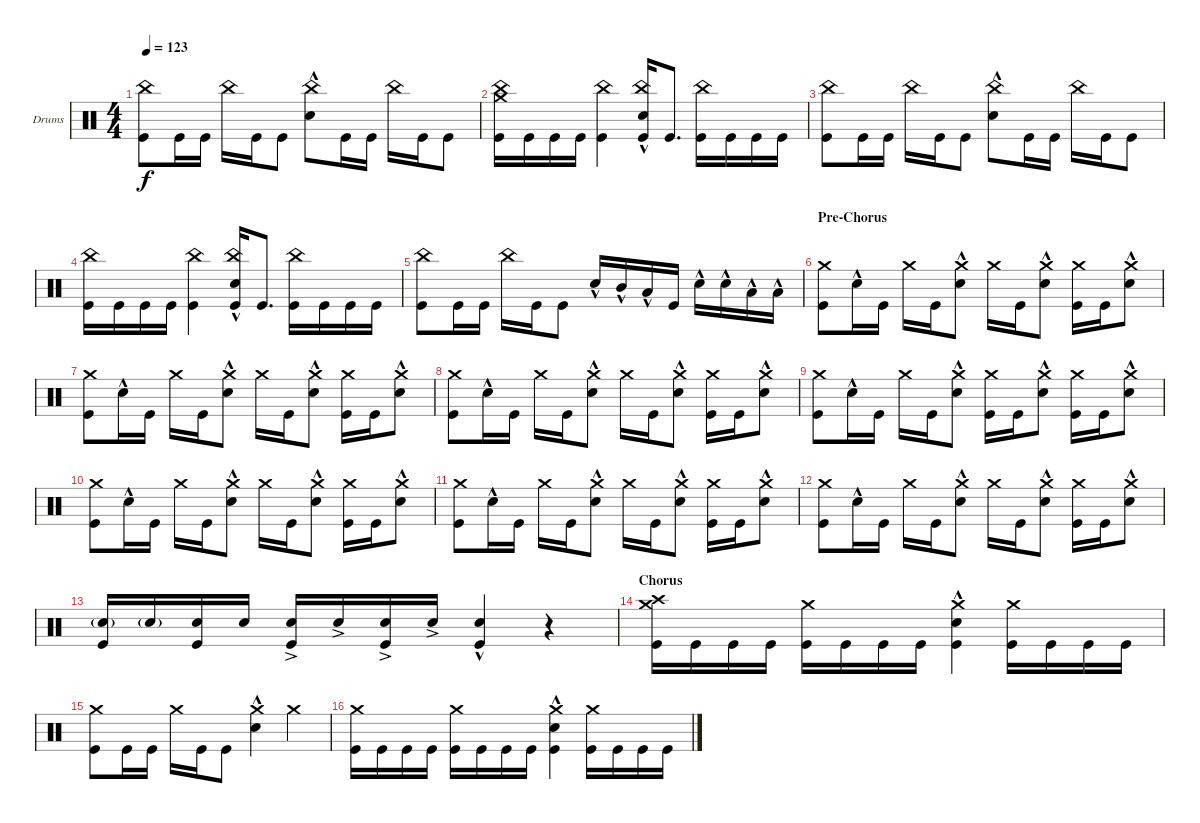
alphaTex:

\bracketExtendMode groupsimilarinstruments
\firstSystemTrackNameOrientation horizontal
\otherSystemsTrackNameOrientation horizontal
\track ("Drumkit" "Drums") {instrument percussion}
\staff {score}
\articulation defaults
\ts (4 4)
\tempo 123
\clef neutral
\ks aminor
("Kick (hit)" "China (hit)").8{dy f} "Kick (hit)".16 "Kick (hit)".16 "China (hit)".16 "Kick (hit)".16 "Kick (hit)".8 ("Snare (hit) 2"{hac} "China (hit)").8 "Kick (hit)".16 "Kick (hit)".16 "China (hit)".16 "Kick (hit)".16 "Kick (hit)".8 |
("Crash medium (hit)" "Kick (hit)" "China (hit)").16 "Kick (hit)".16 "Kick (hit)".16 "Kick (hit)".16 ("Kick (hit)" "China (hit)").4 ("Kick (hit)" "China (hit)" "Snare (hit) 2"{hac}).16 "Kick (hit)".8{d} ("Kick (hit)" "China (hit)").16 "Kick (hit)".16 "Kick (hit)".16 "Kick (hit)".16 |
("Kick (hit)" "China (hit)").8 "Kick (hit)".16 "Kick (hit)".16 "China (hit)".16 "Kick (hit)".16 "Kick (hit)".8 ("Snare (hit) 2"{hac} "China (hit)").8 "Kick (hit)".16 "Kick (hit)".16 "China (hit)".16 "Kick (hit)".16 "Kick (hit)".8 |
("Kick (hit)" "China (hit)").16 "Kick (hit)".16 "Kick (hit)".16 "Kick (hit)".16 ("Kick (hit)" "China (hit)").4 ("Kick (hit)" "China (hit)" "Snare (hit) 2"{hac}).16 "Kick (hit)".8{d} ("Kick (hit)" "China (hit)").16 "Kick (hit)".16 "Kick (hit)".16 "Kick (hit)".16 |
("Kick (hit)" "China (hit)").8 "Kick (hit)".16 "Kick (hit)".16 "China (hit)".16 "Kick (hit)".16 "Kick (hit)".8 "Snare (hit) 2"{hac}.16 "Mid Tom (hit)"{hac}.16 "Low Tom (hit)"{hac}.16 "Kick (hit)".16 "Snare (hit) 2"{hac}.16 "Snare (hit) 2"{hac}.16 "Low Tom (hit)"{hac}.16 "Low Tom (hit)"{hac}.16 |
\section ("" "Pre-Chorus")
("Kick (hit)" "Crash medium (hit)").8 "Snare (hit) 2"{hac}.16 "Kick (hit)".16 "Crash medium (hit)".16 "Kick (hit)".16 ("Snare (hit) 2"{hac} "Crash medium (hit)").8 "Crash medium (hit)".16 "Kick (hit)".16 ("Snare (hit) 2"{hac} "Crash medium (hit)").8 ("Crash medium (hit)" "Kick (hit)").16 "Kick (hit)".16 ("Snare (hit) 2"{hac} "Crash medium (hit)").8 |
("Kick (hit)" "Crash medium (hit)").8 "Snare (hit) 2"{hac}.16 "Kick (hit)".16 "Crash medium (hit)".16 "Kick (hit)".16 ("Snare (hit) 2"{hac} "Crash medium (hit)").8 "Crash medium (hit)".16 "Kick (hit)".16 ("Snare (hit) 2"{hac} "Crash medium (hit)").8 ("Crash medium (hit)" "Kick (hit)").16 "Kick (hit)".16 ("Snare (hit) 2"{hac} "Crash medium (hit)").8 |
("Kick (hit)" "Crash medium (hit)").8 "Snare (hit) 2"{hac}.16 "Kick (hit)".16 "Crash medium (hit)".16 "Kick (hit)".16 ("Snare (hit) 2"{hac} "Crash medium (hit)").8 "Crash medium (hit)".16 "Kick (hit)".16 ("Snare (hit) 2"{hac} "Crash medium (hit)").8 ("Crash medium (hit)" "Kick (hit)").16 "Kick (hit)".16 ("Snare (hit) 2"{hac} "Crash medium (hit)").8 |
("Kick (hit)" "Crash medium (hit)").8 "Snare (hit) 2"{hac}.16 "Kick (hit)".16 "Crash medium (hit)".16 "Kick (hit)".16 ("Snare (hit) 2"{hac} "Crash medium (hit)").8 ("Crash medium (hit)" "Kick (hit)").16 "Kick (hit)".16 ("Snare (hit) 2"{hac} "Crash medium (hit)").8 ("Crash medium (hit)" "Kick (hit)").16 "Kick (hit)".16 ("Snare (hit) 2"{hac} "Crash medium (hit)").8 |
("Kick (hit)" "Crash medium (hit)").8 "Snare (hit) 2"{hac}.16 "Kick (hit)".16 "Crash medium (hit)".16 "Kick (hit)".16 ("Snare (hit) 2"{hac} "Crash medium (hit)").8 "Crash medium (hit)".16 "Kick (hit)".16 ("Snare (hit) 2"{hac} "Crash medium (hit)").8 ("Crash medium (hit)" "Kick (hit)").16 "Kick (hit)".16 ("Snare (hit) 2"{hac} "Crash medium (hit)").8 |
("Kick (hit)" "Crash medium (hit)").8 "Snare (hit) 2"{hac}.16 "Kick (hit)".16 "Crash medium (hit)".16 "Kick (hit)".16 ("Snare (hit) 2"{hac} "Crash medium (hit)").8 "Crash medium (hit)".16 "Kick (hit)".16 ("Snare (hit) 2"{hac} "Crash medium (hit)").8 ("Crash medium (hit)" "Kick (hit)").16 "Kick (hit)".16 ("Snare (hit) 2"{hac} "Crash medium (hit)").8 |
("Kick (hit)" "Crash medium (hit)").8 "Snare (hit) 2"{hac}.16 "Kick (hit)".16 "Crash medium (hit)".16 "Kick (hit)".16 ("Snare (hit) 2"{hac} "Crash medium (hit)").8 "Crash medium (hit)".16 "Kick (hit)".16 ("Snare (hit) 2"{hac} "Crash medium (hit)").8 ("Crash medium (hit)" "Kick (hit)").16 "Kick (hit)".16 ("Snare (hit) 2"{hac} "Crash medium (hit)").8 |
("Snare (hit) 2"{g} "Kick (hit)").16 "Snare (hit) 2"{g}.16 ("Snare (hit) 2" "Kick (hit)").16 "Snare (hit) 2".16 ("Snare (hit) 2"{ac} "Kick (hit)").16 "Snare (hit) 2"{ac}.16 ("Snare (hit) 2"{ac} "Kick (hit)").16 "Snare (hit) 2"{ac}.16 ("Snare (hit) 2"{hac} "Kick (hit)").4 r.4 |
\section ("" "Chorus")
("Kick (hit)" "Crash medium (hit)" "Crash high (hit)").16 "Kick (hit)".16 "Kick (hit)".16 "Kick (hit)".16 ("Kick (hit)" "Crash medium (hit)").16 "Kick (hit)".16 "Kick (hit)".16 "Kick (hit)".16 ("Kick (hit)" "Crash medium (hit)" "Snare (hit) 2"{hac}).4 ("Kick (hit)" "Crash medium (hit)").16 "Kick (hit)".16 "Kick (hit)".16 "Kick (hit)".16 |
("Kick (hit)" "Crash medium (hit)").8 "Kick (hit)".16 "Kick (hit)".16 "Crash medium (hit)".16 "Kick (hit)".16 "Kick (hit)".8 ("Crash medium (hit)" "Snare (hit) 2"{hac}).4 "Crash medium (hit)".4 |
("Kick (hit)" "Crash medium (hit)").16 "Kick (hit)".16 "Kick (hit)".16 "Kick (hit)".16 ("Kick (hit)" "Crash medium (hit)").16 "Kick (hit)".16 "Kick (hit)".16 "Kick (hit)".16 ("Kick (hit)" "Crash medium (hit)" "Snare (hit) 2"{hac}).4 ("Kick (hit)" "Crash medium (hit)").16 "Kick (hit)".16 "Kick (hit)".16 "Kick (hit)".16
